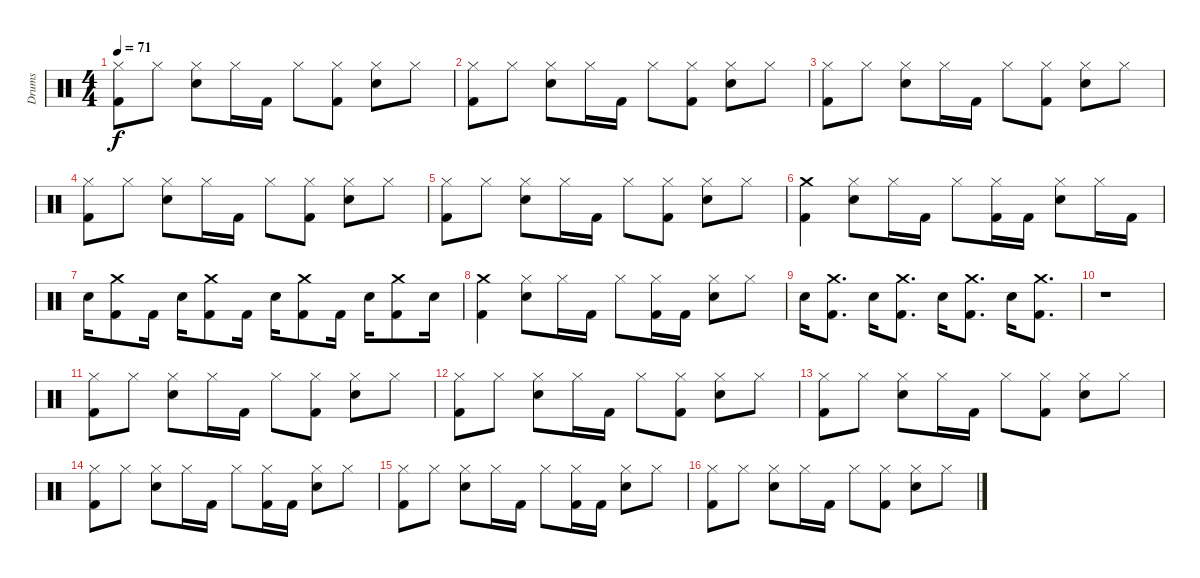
\track ("Drums" "Drums") {instrument percussion}
\staff {score}
\articulation defaults
\ts (4 4)
\tempo 71
\clef neutral
\ks c
("Hi-Hat (closed)" "Kick (hit) 2").8{dy f} "Hi-Hat (closed)".8 ("Hi-Hat (closed)" "Snare (hit) 2").8 "Hi-Hat (closed)".16 "Kick (hit) 2".16 "Hi-Hat (closed)".8 ("Kick (hit) 2" "Hi-Hat (closed)").8 ("Hi-Hat (closed)" "Snare (hit) 2").8 "Hi-Hat (closed)".8 |
("Hi-Hat (closed)" "Kick (hit) 2").8 "Hi-Hat (closed)".8 ("Hi-Hat (closed)" "Snare (hit) 2").8 "Hi-Hat (closed)".16 "Kick (hit) 2".16 "Hi-Hat (closed)".8 ("Kick (hit) 2" "Hi-Hat (closed)").8 ("Hi-Hat (closed)" "Snare (hit) 2").8 "Hi-Hat (closed)".8 |
("Hi-Hat (closed)" "Kick (hit) 2").8 "Hi-Hat (closed)".8 ("Hi-Hat (closed)" "Snare (hit) 2").8 "Hi-Hat (closed)".16 "Kick (hit) 2".16 "Hi-Hat (closed)".8 ("Kick (hit) 2" "Hi-Hat (closed)").8 ("Hi-Hat (closed)" "Snare (hit) 2").8 "Hi-Hat (closed)".8 |
("Hi-Hat (closed)" "Kick (hit) 2").8 "Hi-Hat (closed)".8 ("Hi-Hat (closed)" "Snare (hit) 2").8 "Hi-Hat (closed)".16 "Kick (hit) 2".16 "Hi-Hat (closed)".8 ("Kick (hit) 2" "Hi-Hat (closed)").8 ("Hi-Hat (closed)" "Snare (hit) 2").8 "Hi-Hat (closed)".8 |
("Hi-Hat (closed)" "Kick (hit) 2").8 "Hi-Hat (closed)".8 ("Hi-Hat (closed)" "Snare (hit) 2").8 "Hi-Hat (closed)".16 "Kick (hit) 2".16 "Hi-Hat (closed)".8 ("Kick (hit) 2" "Hi-Hat (closed)").8 ("Hi-Hat (closed)" "Snare (hit) 2").8 "Hi-Hat (closed)".8 |
("Crash medium (hit)" "Kick (hit) 2").4 ("Snare (hit) 2" "Hi-Hat (closed)").8 "Hi-Hat (closed)".16 "Kick (hit) 2".16 "Hi-Hat (closed)".8 ("Hi-Hat (closed)" "Kick (hit) 2").16 "Kick (hit) 2".16 ("Hi-Hat (closed)" "Snare (hit) 2").8 "Hi-Hat (closed)".16 "Kick (hit) 2".16 |
"Snare (hit) 2".16 ("Crash medium (hit)" "Kick (hit) 2").8 "Kick (hit) 2".16 "Snare (hit) 2".16 ("Crash medium (hit)" "Kick (hit) 2").8 "Kick (hit) 2".16 "Snare (hit) 2".16 ("Crash medium (hit)" "Kick (hit) 2").8 "Kick (hit) 2".16 "Snare (hit) 2".16 ("Crash medium (hit)" "Kick (hit) 2").8 "Snare (hit) 2".16 |
("Kick (hit) 2" "Crash medium (hit)").4 ("Hi-Hat (closed)" "Snare (hit) 2").8 "Hi-Hat (closed)".16 "Kick (hit) 2".16 "Hi-Hat (closed)".8 ("Kick (hit) 2" "Hi-Hat (closed)").16 "Kick (hit) 2".16 ("Hi-Hat (closed)" "Snare (hit) 2").8 "Hi-Hat (closed)".8 |
"Snare (hit) 2".16 ("Crash medium (hit)" "Kick (hit) 2").8{d} "Snare (hit) 2".16 ("Crash medium (hit)" "Kick (hit) 2").8{d} "Snare (hit) 2".16 ("Crash medium (hit)" "Kick (hit) 2").8{d} "Snare (hit) 2".16 ("Crash medium (hit)" "Kick (hit) 2").8{d} |
r.1 |
("Hi-Hat (closed)" "Kick (hit) 2").8 "Hi-Hat (closed)".8 ("Hi-Hat (closed)" "Snare (hit) 2").8 "Hi-Hat (closed)".16 "Kick (hit) 2".16 "Hi-Hat (closed)".8 ("Kick (hit) 2" "Hi-Hat (closed)").8 ("Hi-Hat (closed)" "Snare (hit) 2").8 "Hi-Hat (closed)".8 |
("Hi-Hat (closed)" "Kick (hit) 2").8 "Hi-Hat (closed)".8 ("Hi-Hat (closed)" "Snare (hit) 2").8 "Hi-Hat (closed)".16 "Kick (hit) 2".16 "Hi-Hat (closed)".8 ("Kick (hit) 2" "Hi-Hat (closed)").8 ("Hi-Hat (closed)" "Snare (hit) 2").8 "Hi-Hat (closed)".8 |
("Hi-Hat (closed)" "Kick (hit) 2").8 "Hi-Hat (closed)".8 ("Hi-Hat (closed)" "Snare (hit) 2").8 "Hi-Hat (closed)".16 "Kick (hit) 2".16 "Hi-Hat (closed)".8 ("Kick (hit) 2" "Hi-Hat (closed)").8 ("Hi-Hat (closed)" "Snare (hit) 2").8 "Hi-Hat (closed)".8 |
("Hi-Hat (closed)" "Kick (hit) 2").8 "Hi-Hat (closed)".8 ("Hi-Hat (closed)" "Snare (hit) 2").8 "Hi-Hat (closed)".16 "Kick (hit) 2".16 "Hi-Hat (closed)".8 ("Kick (hit) 2" "Hi-Hat (closed)").16 "Kick (hit) 2".16 ("Hi-Hat (closed)" "Snare (hit) 2").8 "Hi-Hat (closed)".8 |
("Hi-Hat (closed)" "Kick (hit) 2").8 "Hi-Hat (closed)".8 ("Hi-Hat (closed)" "Snare (hit) 2").8 "Hi-Hat (closed)".16 "Kick (hit) 2".16 "Hi-Hat (closed)".8 ("Kick (hit) 2" "Hi-Hat (closed)").16 "Kick (hit) 2".16 ("Hi-Hat (closed)" "Snare (hit) 2").8 "Hi-Hat (closed)".8 |
("Hi-Hat (closed)" "Kick (hit) 2").8 "Hi-Hat (closed)".8 ("Hi-Hat (closed)" "Snare (hit) 2").8 "Hi-Hat (closed)".16 "Kick (hit) 2".16 "Hi-Hat (closed)".8 ("Kick (hit) 2" "Hi-Hat (closed)").8 ("Hi-Hat (closed)" "Snare (hit) 2").8 "Hi-Hat (closed)".8
